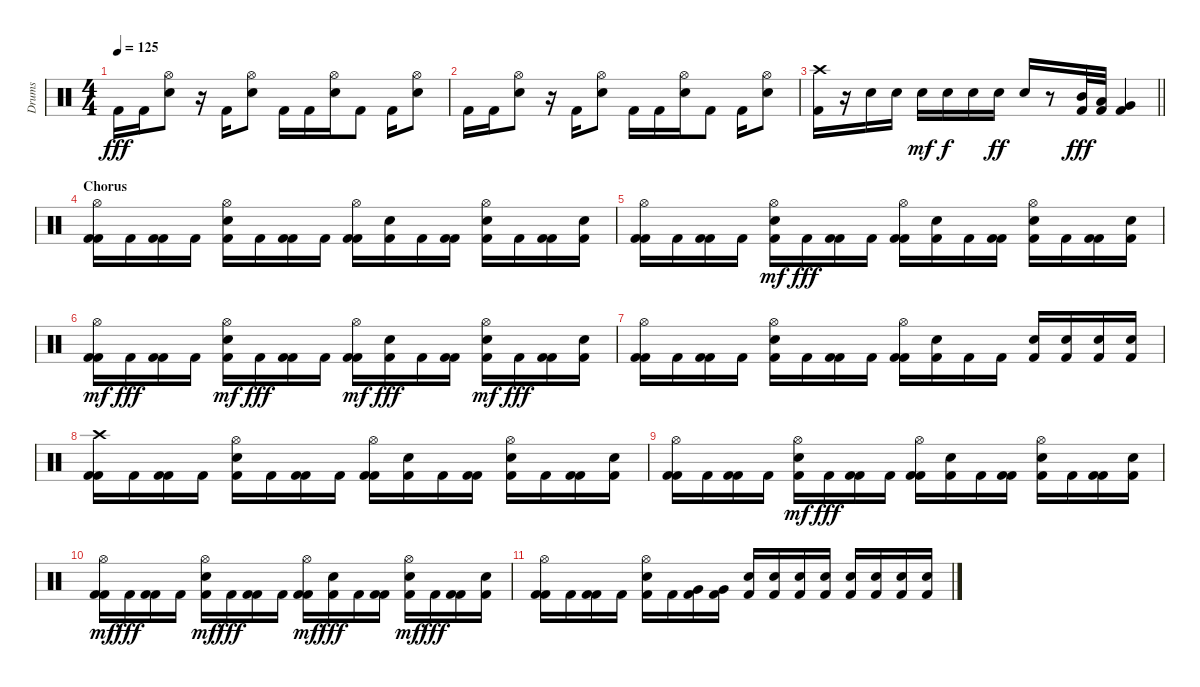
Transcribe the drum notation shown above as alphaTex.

\track ("Drums" "Drums") {instrument percussion}
\staff {score}
\articulation defaults
\ts (4 4)
\tempo 125
\clef neutral
\ks c "Kick (hit) 2".16{dy fff} "Kick (hit) 2".16
("Snare (hit) 2" "Hi-Hat (open)").8 r.16 "Kick (hit) 2".16 ("Snare (hit) 2" "Hi-Hat (open)").8 "Kick (hit) 2".16 "Kick (hit) 2".16 ("Snare (hit) 2" "Hi-Hat (open)").16 "Kick (hit) 2".8 "Kick (hit) 2".16 ("Snare (hit) 2" "Hi-Hat (open)").8 |
"Kick (hit) 2".16 "Kick (hit) 2".16 ("Snare (hit) 2" "Hi-Hat (open)").8 r.16 "Kick (hit) 2".16 ("Snare (hit) 2" "Hi-Hat (open)").8 "Kick (hit) 2".16 "Kick (hit) 2".16 ("Snare (hit) 2" "Hi-Hat (open)").16 "Kick (hit) 2".8 "Kick (hit) 2".16 ("Snare (hit) 2" "Hi-Hat (open)").8 |
\barLineRight lightlight
("Kick (hit) 2" "Crash high (hit)").16 r.16 "Snare (hit) 2".16 "Snare (hit) 2".16 "Snare (hit) 2".16{dy mf} "Snare (hit) 2".16{dy f} "Snare (hit) 2".16 "Snare (hit) 2".16{dy ff} "Snare (hit) 2".16 r.8 ("Kick (hit) 2" "Mid Tom (hit)").32{dy fff} ("Kick (hit) 2" "Low Tom (hit)").32 ("Kick (hit) 2" "Very Low Tom (hit)").4 |
\section ("" "Chorus")
("Kick (hit) 2" "Kick (hit) 2" "Hi-Hat (open)").16 "Kick (hit) 2".16 ("Kick (hit) 2" "Kick (hit) 2").16 "Kick (hit) 2".16 ("Kick (hit) 2" "Snare (hit) 2" "Hi-Hat (open)").16 "Kick (hit) 2".16 ("Kick (hit) 2" "Kick (hit) 2").16 "Kick (hit) 2".16 ("Kick (hit) 2" "Kick (hit) 2" "Hi-Hat (open)").16 ("Kick (hit) 2" "Snare (hit) 2").16 "Kick (hit) 2".16 ("Kick (hit) 2" "Kick (hit) 2").16 ("Kick (hit) 2" "Snare (hit) 2" "Hi-Hat (open)").16 "Kick (hit) 2".16 ("Kick (hit) 2" "Kick (hit) 2").16 ("Kick (hit) 2" "Snare (hit) 2").16 |
("Kick (hit) 2" "Kick (hit) 2" "Hi-Hat (open)").16 "Kick (hit) 2".16 ("Kick (hit) 2" "Kick (hit) 2").16 "Kick (hit) 2".16 ("Kick (hit) 2" "Snare (hit) 2" "Hi-Hat (open)").16{dy mf} "Kick (hit) 2".16{dy fff} ("Kick (hit) 2" "Kick (hit) 2").16 "Kick (hit) 2".16 ("Kick (hit) 2" "Kick (hit) 2" "Hi-Hat (open)").16 ("Kick (hit) 2" "Snare (hit) 2").16 "Kick (hit) 2".16 ("Kick (hit) 2" "Kick (hit) 2").16 ("Kick (hit) 2" "Snare (hit) 2" "Hi-Hat (open)").16 "Kick (hit) 2".16 ("Kick (hit) 2" "Kick (hit) 2").16 ("Kick (hit) 2" "Snare (hit) 2").16 |
("Kick (hit) 2" "Kick (hit) 2" "Hi-Hat (open)").16{dy mf} "Kick (hit) 2".16{dy fff} ("Kick (hit) 2" "Kick (hit) 2").16 "Kick (hit) 2".16 ("Kick (hit) 2" "Snare (hit) 2" "Hi-Hat (open)").16{dy mf} "Kick (hit) 2".16{dy fff} ("Kick (hit) 2" "Kick (hit) 2").16 "Kick (hit) 2".16 ("Kick (hit) 2" "Kick (hit) 2" "Hi-Hat (open)").16{dy mf} ("Kick (hit) 2" "Snare (hit) 2").16{dy fff} "Kick (hit) 2".16 ("Kick (hit) 2" "Kick (hit) 2").16 ("Kick (hit) 2" "Snare (hit) 2" "Hi-Hat (open)").16{dy mf} "Kick (hit) 2".16{dy fff} ("Kick (hit) 2" "Kick (hit) 2").16 ("Kick (hit) 2" "Snare (hit) 2").16 |
("Kick (hit) 2" "Kick (hit) 2" "Hi-Hat (open)").16 "Kick (hit) 2".16 ("Kick (hit) 2" "Kick (hit) 2").16 "Kick (hit) 2".16 ("Kick (hit) 2" "Snare (hit) 2" "Hi-Hat (open)").16 "Kick (hit) 2".16 ("Kick (hit) 2" "Kick (hit) 2").16 "Kick (hit) 2".16 ("Kick (hit) 2" "Kick (hit) 2" "Hi-Hat (open)").16 ("Kick (hit) 2" "Snare (hit) 2").16 "Kick (hit) 2".16 "Kick (hit) 2".16 ("Kick (hit) 2" "Snare (hit) 2").16 ("Kick (hit) 2" "Snare (hit) 2").16 ("Kick (hit) 2" "Snare (hit) 2").16 ("Kick (hit) 2" "Snare (hit) 2").16 |
("Kick (hit) 2" "Kick (hit) 2" "Crash high (hit)").16 "Kick (hit) 2".16 ("Kick (hit) 2" "Kick (hit) 2").16 "Kick (hit) 2".16 ("Kick (hit) 2" "Snare (hit) 2" "Hi-Hat (open)").16 "Kick (hit) 2".16 ("Kick (hit) 2" "Kick (hit) 2").16 "Kick (hit) 2".16 ("Kick (hit) 2" "Kick (hit) 2" "Hi-Hat (open)").16 ("Kick (hit) 2" "Snare (hit) 2").16 "Kick (hit) 2".16 ("Kick (hit) 2" "Kick (hit) 2").16 ("Kick (hit) 2" "Snare (hit) 2" "Hi-Hat (open)").16 "Kick (hit) 2".16 ("Kick (hit) 2" "Kick (hit) 2").16 ("Kick (hit) 2" "Snare (hit) 2").16 |
("Kick (hit) 2" "Kick (hit) 2" "Hi-Hat (open)").16 "Kick (hit) 2".16 ("Kick (hit) 2" "Kick (hit) 2").16 "Kick (hit) 2".16 ("Kick (hit) 2" "Snare (hit) 2" "Hi-Hat (open)").16{dy mf} "Kick (hit) 2".16{dy fff} ("Kick (hit) 2" "Kick (hit) 2").16 "Kick (hit) 2".16 ("Kick (hit) 2" "Kick (hit) 2" "Hi-Hat (open)").16 ("Kick (hit) 2" "Snare (hit) 2").16 "Kick (hit) 2".16 ("Kick (hit) 2" "Kick (hit) 2").16 ("Kick (hit) 2" "Snare (hit) 2" "Hi-Hat (open)").16 "Kick (hit) 2".16 ("Kick (hit) 2" "Kick (hit) 2").16 ("Kick (hit) 2" "Snare (hit) 2").16 |
("Kick (hit) 2" "Kick (hit) 2" "Hi-Hat (open)").16{dy mf} "Kick (hit) 2".16{dy fff} ("Kick (hit) 2" "Kick (hit) 2").16 "Kick (hit) 2".16 ("Kick (hit) 2" "Snare (hit) 2" "Hi-Hat (open)").16{dy mf} "Kick (hit) 2".16{dy fff} ("Kick (hit) 2" "Kick (hit) 2").16 "Kick (hit) 2".16 ("Kick (hit) 2" "Kick (hit) 2" "Hi-Hat (open)").16{dy mf} ("Kick (hit) 2" "Snare (hit) 2").16{dy fff} "Kick (hit) 2".16 ("Kick (hit) 2" "Kick (hit) 2").16 ("Kick (hit) 2" "Snare (hit) 2" "Hi-Hat (open)").16{dy mf} "Kick (hit) 2".16{dy fff} ("Kick (hit) 2" "Kick (hit) 2").16 ("Kick (hit) 2" "Snare (hit) 2").16 |
("Kick (hit) 2" "Kick (hit) 2" "Hi-Hat (open)").16 "Kick (hit) 2".16 ("Kick (hit) 2" "Kick (hit) 2").16 "Kick (hit) 2".16 ("Kick (hit) 2" "Snare (hit) 2" "Hi-Hat (open)").16 "Kick (hit) 2".16 ("Kick (hit) 2" "Very Low Tom (hit)").16 ("Kick (hit) 2" "Very Low Tom (hit)").16 ("Kick (hit) 2" "Snare (hit) 2").16 ("Kick (hit) 2" "Snare (hit) 2").16 ("Kick (hit) 2" "Snare (hit) 2").16 ("Kick (hit) 2" "Snare (hit) 2").16 ("Kick (hit) 2" "Snare (hit) 2").16 ("Kick (hit) 2" "Snare (hit) 2").16 ("Kick (hit) 2" "Snare (hit) 2").16 ("Kick (hit) 2" "Snare (hit) 2").16
